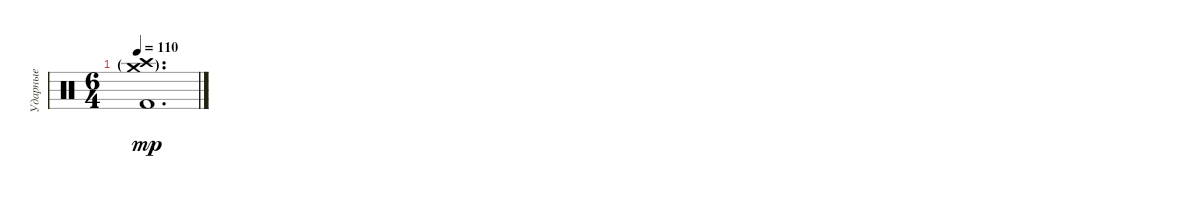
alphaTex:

\track ("Ударные" "Ударные") {instrument percussion}
\staff {score}
\articulation defaults
\ts (6 4)
\tempo 110
\clef neutral
\ks c
("Crash medium (hit)"{g} "Crash high (hit)"{g} "Kick (hit) 2").1{d dy mp}
